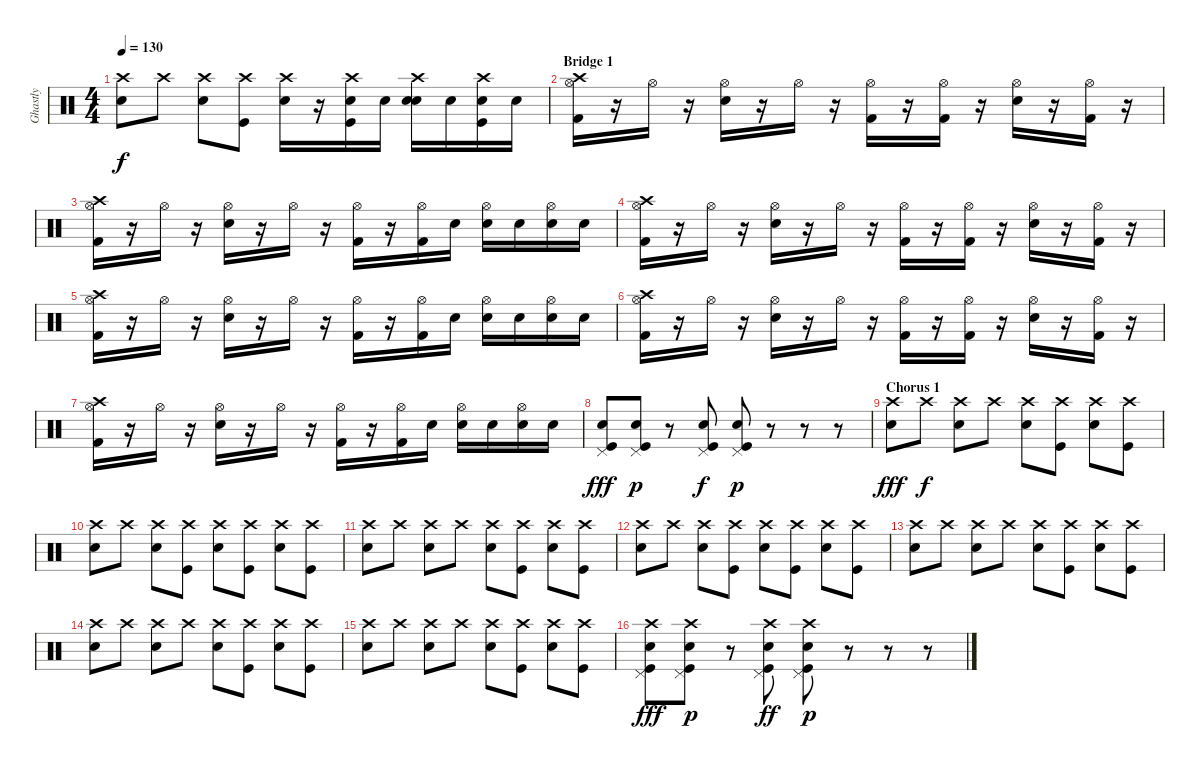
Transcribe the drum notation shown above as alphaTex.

\track ("Ghastly" "Ghastly") {instrument percussion}
\staff {score}
\articulation defaults
\ts (4 4)
\tempo 130
\clef neutral
\ks c
("Crash high (hit)" "Electric Snare (hit)").8{dy f} "Crash high (hit)".8 ("Crash high (hit)" "Electric Snare (hit)").8 ("Crash high (hit)" "Kick (hit)").8 ("Crash high (hit)" "Electric Snare (hit)").16 r.16 ("Crash high (hit)" "Kick (hit)" "Electric Snare (hit)").16 "Electric Snare (hit)".16 ("Crash high (hit)" "Electric Snare (hit)" "Electric Snare (hit)").16 "Electric Snare (hit)".16 ("Crash high (hit)" "Kick (hit)" "Electric Snare (hit)").16 "Electric Snare (hit)".16 |
\section ("" "Bridge 1")
("Hi-Hat (open)" "Crash high (hit)" "Kick (hit) 2").16 r.16 "Hi-Hat (open)".16 r.16 ("Hi-Hat (open)" "Electric Snare (hit)").16 r.16 "Hi-Hat (open)".16 r.16 ("Hi-Hat (open)" "Kick (hit) 2").16 r.16 ("Hi-Hat (open)" "Kick (hit) 2").16 r.16 ("Hi-Hat (open)" "Electric Snare (hit)").16 r.16 ("Hi-Hat (open)" "Kick (hit) 2").16 r.16 |
("Hi-Hat (open)" "Crash high (hit)" "Kick (hit) 2").16 r.16 "Hi-Hat (open)".16 r.16 ("Hi-Hat (open)" "Electric Snare (hit)").16 r.16 "Hi-Hat (open)".16 r.16 ("Hi-Hat (open)" "Kick (hit) 2").16 r.16 ("Hi-Hat (open)" "Kick (hit) 2").16 "Electric Snare (hit)".16 ("Hi-Hat (open)" "Electric Snare (hit)").16 "Electric Snare (hit)".16 ("Hi-Hat (open)" "Electric Snare (hit)").16 "Electric Snare (hit)".16 |
("Hi-Hat (open)" "Crash high (hit)" "Kick (hit) 2").16 r.16 "Hi-Hat (open)".16 r.16 ("Hi-Hat (open)" "Electric Snare (hit)").16 r.16 "Hi-Hat (open)".16 r.16 ("Hi-Hat (open)" "Kick (hit) 2").16 r.16 ("Hi-Hat (open)" "Kick (hit) 2").16 r.16 ("Hi-Hat (open)" "Electric Snare (hit)").16 r.16 ("Hi-Hat (open)" "Kick (hit) 2").16 r.16 |
("Hi-Hat (open)" "Crash high (hit)" "Kick (hit) 2").16 r.16 "Hi-Hat (open)".16 r.16 ("Hi-Hat (open)" "Electric Snare (hit)").16 r.16 "Hi-Hat (open)".16 r.16 ("Hi-Hat (open)" "Kick (hit) 2").16 r.16 ("Hi-Hat (open)" "Kick (hit) 2").16 "Electric Snare (hit)".16 ("Hi-Hat (open)" "Electric Snare (hit)").16 "Electric Snare (hit)".16 ("Hi-Hat (open)" "Electric Snare (hit)").16 "Electric Snare (hit)".16 |
("Hi-Hat (open)" "Crash high (hit)" "Kick (hit) 2").16 r.16 "Hi-Hat (open)".16 r.16 ("Hi-Hat (open)" "Electric Snare (hit)").16 r.16 "Hi-Hat (open)".16 r.16 ("Hi-Hat (open)" "Kick (hit) 2").16 r.16 ("Hi-Hat (open)" "Kick (hit) 2").16 r.16 ("Hi-Hat (open)" "Electric Snare (hit)").16 r.16 ("Hi-Hat (open)" "Kick (hit) 2").16 r.16 |
("Hi-Hat (open)" "Crash high (hit)" "Kick (hit) 2").16 r.16 "Hi-Hat (open)".16 r.16 ("Hi-Hat (open)" "Electric Snare (hit)").16 r.16 "Hi-Hat (open)".16 r.16 ("Hi-Hat (open)" "Kick (hit) 2").16 r.16 ("Hi-Hat (open)" "Kick (hit) 2").16 "Electric Snare (hit)".16 ("Hi-Hat (open)" "Electric Snare (hit)").16 "Electric Snare (hit)".16 ("Hi-Hat (open)" "Electric Snare (hit)").16 "Electric Snare (hit)".16 |
("Pedal Hi-Hat (hit)" "Kick (hit)" "Electric Snare (hit)").8{dy fff} ("Pedal Hi-Hat (hit)" "Kick (hit)" "Electric Snare (hit)").8{dy p} r.8 ("Pedal Hi-Hat (hit)" "Kick (hit)" "Electric Snare (hit)").8{dy f} ("Pedal Hi-Hat (hit)" "Kick (hit)" "Electric Snare (hit)").8{dy p} r.8 r.8 r.8 |
\section ("" "Chorus 1")
("Crash high (hit)" "Electric Snare (hit)").8{dy fff} "Crash high (hit)".8{dy f} ("Crash high (hit)" "Electric Snare (hit)").8 "Crash high (hit)".8 ("Crash high (hit)" "Electric Snare (hit)").8 ("Crash high (hit)" "Kick (hit)").8 ("Crash high (hit)" "Electric Snare (hit)").8 ("Crash high (hit)" "Kick (hit)").8 |
("Crash high (hit)" "Electric Snare (hit)").8 "Crash high (hit)".8 ("Crash high (hit)" "Electric Snare (hit)").8 ("Crash high (hit)" "Kick (hit)").8 ("Crash high (hit)" "Electric Snare (hit)").8 ("Crash high (hit)" "Kick (hit)").8 ("Crash high (hit)" "Electric Snare (hit)").8 ("Crash high (hit)" "Kick (hit)").8 |
("Crash high (hit)" "Electric Snare (hit)").8 "Crash high (hit)".8 ("Crash high (hit)" "Electric Snare (hit)").8 "Crash high (hit)".8 ("Crash high (hit)" "Electric Snare (hit)").8 ("Crash high (hit)" "Kick (hit)").8 ("Crash high (hit)" "Electric Snare (hit)").8 ("Crash high (hit)" "Kick (hit)").8 |
("Crash high (hit)" "Electric Snare (hit)").8 "Crash high (hit)".8 ("Crash high (hit)" "Electric Snare (hit)").8 ("Crash high (hit)" "Kick (hit)").8 ("Crash high (hit)" "Electric Snare (hit)").8 ("Crash high (hit)" "Kick (hit)").8 ("Crash high (hit)" "Electric Snare (hit)").8 ("Crash high (hit)" "Kick (hit)").8 |
("Crash high (hit)" "Electric Snare (hit)").8 "Crash high (hit)".8 ("Crash high (hit)" "Electric Snare (hit)").8 "Crash high (hit)".8 ("Crash high (hit)" "Electric Snare (hit)").8 ("Crash high (hit)" "Kick (hit)").8 ("Crash high (hit)" "Electric Snare (hit)").8 ("Crash high (hit)" "Kick (hit)").8 |
("Crash high (hit)" "Electric Snare (hit)").8 "Crash high (hit)".8 ("Crash high (hit)" "Electric Snare (hit)").8 "Crash high (hit)".8 ("Crash high (hit)" "Electric Snare (hit)").8 ("Crash high (hit)" "Kick (hit)").8 ("Crash high (hit)" "Electric Snare (hit)").8 ("Crash high (hit)" "Kick (hit)").8 |
("Crash high (hit)" "Electric Snare (hit)").8 "Crash high (hit)".8 ("Crash high (hit)" "Electric Snare (hit)").8 "Crash high (hit)".8 ("Crash high (hit)" "Electric Snare (hit)").8 ("Crash high (hit)" "Kick (hit)").8 ("Crash high (hit)" "Electric Snare (hit)").8 ("Crash high (hit)" "Kick (hit)").8 |
("Crash high (hit)" "Pedal Hi-Hat (hit)" "Kick (hit)" "Electric Snare (hit)").8{dy fff} ("Crash high (hit)" "Pedal Hi-Hat (hit)" "Kick (hit)" "Electric Snare (hit)").8{dy p} r.8 ("Crash high (hit)" "Pedal Hi-Hat (hit)" "Kick (hit)" "Electric Snare (hit)").8{dy ff} ("Crash high (hit)" "Pedal Hi-Hat (hit)" "Kick (hit)" "Electric Snare (hit)").8{dy p} r.8 r.8 r.8
